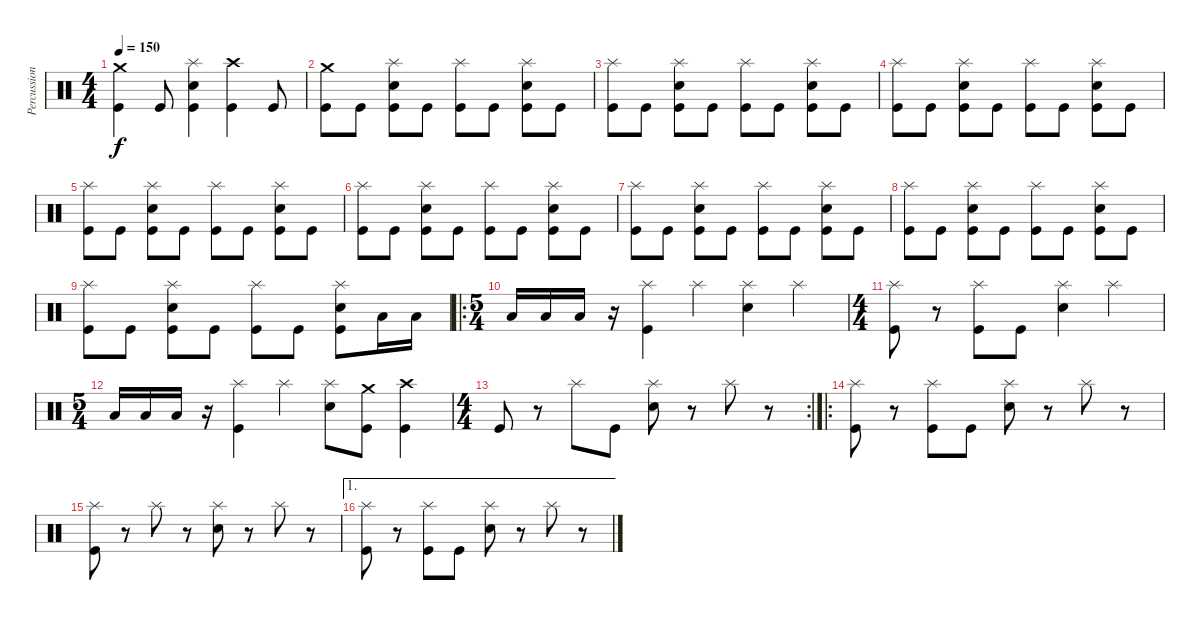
\track ("Percussions" "Percussion") {instrument percussion}
\staff {score}
\articulation defaults
\ts (4 4)
\tempo 150
\clef neutral
\ks c
("Kick (hit)" "Crash medium (hit)").4{dy f} "Kick (hit)".8 ("Kick (hit)" "Electric Snare (hit)" "Splash (hit)").4 ("Kick (hit)" "Crash high (hit)").4 "Kick (hit)".8 |
("Kick (hit)" "Crash medium (hit)").8 "Kick (hit)".8 ("Kick (hit)" "Electric Snare (hit)" "Splash (hit)").8 "Kick (hit)".8 ("Kick (hit)" "Splash (hit)").8 "Kick (hit)".8 ("Kick (hit)" "Electric Snare (hit)" "Splash (hit)").8 "Kick (hit)".8 |
("Kick (hit)" "Splash (hit)").8 "Kick (hit)".8 ("Kick (hit)" "Electric Snare (hit)" "Splash (hit)").8 "Kick (hit)".8 ("Kick (hit)" "Splash (hit)").8 "Kick (hit)".8 ("Kick (hit)" "Electric Snare (hit)" "Splash (hit)").8 "Kick (hit)".8 |
("Kick (hit)" "Splash (hit)").8 "Kick (hit)".8 ("Kick (hit)" "Electric Snare (hit)" "Splash (hit)").8 "Kick (hit)".8 ("Kick (hit)" "Splash (hit)").8 "Kick (hit)".8 ("Kick (hit)" "Electric Snare (hit)" "Splash (hit)").8 "Kick (hit)".8 |
("Kick (hit)" "Splash (hit)").8 "Kick (hit)".8 ("Kick (hit)" "Electric Snare (hit)" "Splash (hit)").8 "Kick (hit)".8 ("Kick (hit)" "Splash (hit)").8 "Kick (hit)".8 ("Kick (hit)" "Electric Snare (hit)" "Splash (hit)").8 "Kick (hit)".8 |
("Kick (hit)" "Splash (hit)").8 "Kick (hit)".8 ("Kick (hit)" "Electric Snare (hit)" "Splash (hit)").8 "Kick (hit)".8 ("Kick (hit)" "Splash (hit)").8 "Kick (hit)".8 ("Kick (hit)" "Electric Snare (hit)" "Splash (hit)").8 "Kick (hit)".8 |
("Kick (hit)" "Splash (hit)").8 "Kick (hit)".8 ("Kick (hit)" "Electric Snare (hit)" "Splash (hit)").8 "Kick (hit)".8 ("Kick (hit)" "Splash (hit)").8 "Kick (hit)".8 ("Kick (hit)" "Electric Snare (hit)" "Splash (hit)").8 "Kick (hit)".8 |
("Kick (hit)" "Splash (hit)").8 "Kick (hit)".8 ("Kick (hit)" "Electric Snare (hit)" "Splash (hit)").8 "Kick (hit)".8 ("Kick (hit)" "Splash (hit)").8 "Kick (hit)".8 ("Kick (hit)" "Electric Snare (hit)" "Splash (hit)").8 "Kick (hit)".8 |
("Kick (hit)" "Splash (hit)").8 "Kick (hit)".8 ("Kick (hit)" "Electric Snare (hit)" "Splash (hit)").8 "Kick (hit)".8 ("Kick (hit)" "Splash (hit)").8 "Kick (hit)".8 ("Kick (hit)" "Electric Snare (hit)" "Splash (hit)").8 "Low Floor Tom (hit)".16 "Low Floor Tom (hit)".16 |
\ro
\ts (5 4)
"Low Floor Tom (hit)".16 "Low Floor Tom (hit)".16 "Low Floor Tom (hit)".16 r.16 ("Kick (hit)" "Splash (hit)").4 "Splash (hit)".4 ("Electric Snare (hit)" "Splash (hit)").4 "Splash (hit)".4 |
\ts (4 4)
("Kick (hit)" "Splash (hit)").8 r.8 ("Kick (hit)" "Splash (hit)").8 "Kick (hit)".8 ("Electric Snare (hit)" "Splash (hit)").4 "Splash (hit)".4 |
\ts (5 4)
"Low Floor Tom (hit)".16 "Low Floor Tom (hit)".16 "Low Floor Tom (hit)".16 r.16 ("Kick (hit)" "Splash (hit)").4 "Splash (hit)".4 ("Electric Snare (hit)" "Splash (hit)").8 ("Kick (hit)" "Crash medium (hit)").8 ("Kick (hit)" "Crash high (hit)").4 |
\rc 2
\ts (4 4)
"Kick (hit)".8 r.8 "Splash (hit)".8 "Kick (hit)".8 ("Electric Snare (hit)" "Splash (hit)").8 r.8 "Splash (hit)".8 r.8 |
\ro
("Kick (hit)" "Splash (hit)").8 r.8 ("Kick (hit)" "Splash (hit)").8 "Kick (hit)".8 ("Electric Snare (hit)" "Splash (hit)").8 r.8 "Splash (hit)".8 r.8 |
("Kick (hit)" "Splash (hit)").8 r.8 "Splash (hit)".8 r.8 ("Electric Snare (hit)" "Splash (hit)").8 r.8 "Splash (hit)".8 r.8 |
\ae 1
("Kick (hit)" "Splash (hit)").8 r.8 ("Kick (hit)" "Splash (hit)").8 "Kick (hit)".8 ("Electric Snare (hit)" "Splash (hit)").8 r.8 "Splash (hit)".8 r.8
